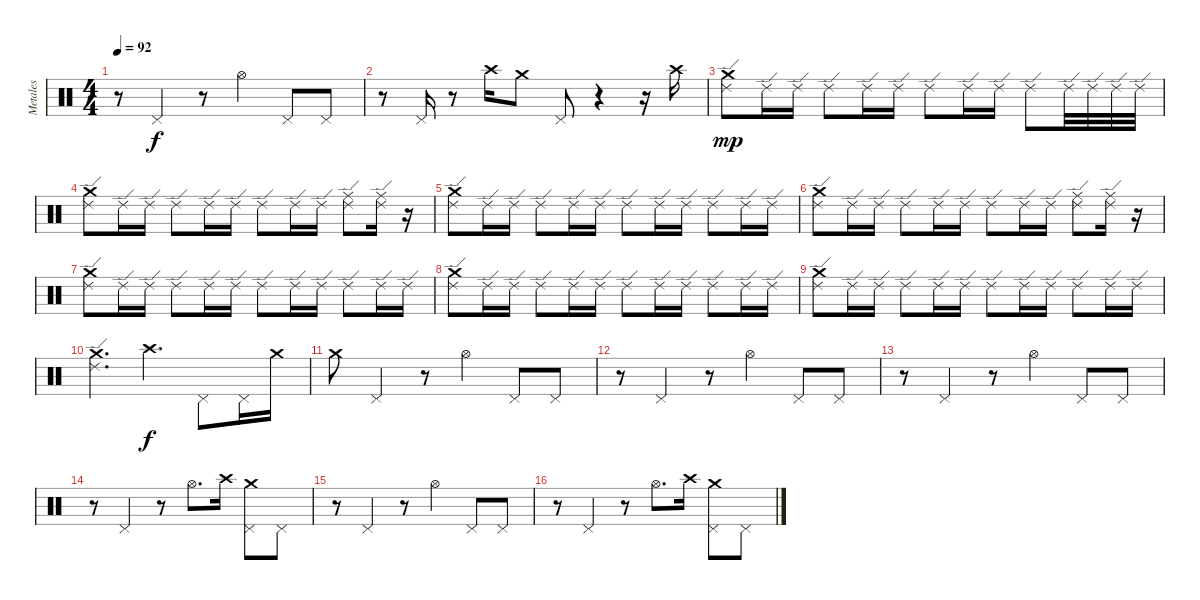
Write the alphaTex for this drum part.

\track ("Metales" "Metales") {instrument percussion}
\staff {score}
\articulation defaults
\ts (4 4)
\tempo 92
\clef neutral
\ks c
r.8{dy f} "Pedal Hi-Hat (hit)".4 r.8 "Hi-Hat (open)".4 "Pedal Hi-Hat (hit)".8 "Pedal Hi-Hat (hit)".8 |
r.8 "Pedal Hi-Hat (hit)".16 r.8 "Crash high (hit)".16 "Crash medium (hit)".8 "Pedal Hi-Hat (hit)".8 r.4 r.16 "Crash high (hit)".16 |
("Ride (edge) 2" "Crash medium (hit)").8{dy mp} "Ride (edge) 2".16 "Ride (edge) 2".16 "Ride (edge) 2".8 "Ride (edge) 2".16 "Ride (edge) 2".16 "Ride (edge) 2".8 "Ride (edge) 2".16 "Ride (edge) 2".16 "Ride (edge) 2".8 "Ride (edge) 2".32 "Ride (edge) 2".32 "Ride (edge) 2".32 "Ride (edge) 2".32 |
("Ride (edge) 2" "Crash medium (hit)").8 "Ride (edge) 2".16 "Ride (edge) 2".16 "Ride (edge) 2".8 "Ride (edge) 2".16 "Ride (edge) 2".16 "Ride (edge) 2".8 "Ride (edge) 2".16 "Ride (edge) 2".16 ("Ride (edge) 2" "Ride (middle)").8 ("Ride (edge) 2" "Ride (middle)").16 r.16 |
("Ride (edge) 2" "Crash medium (hit)").8 "Ride (edge) 2".16 "Ride (edge) 2".16 "Ride (edge) 2".8 "Ride (edge) 2".16 "Ride (edge) 2".16 "Ride (edge) 2".8 "Ride (edge) 2".16 "Ride (edge) 2".16 "Ride (edge) 2".8 "Ride (edge) 2".16 "Ride (edge) 2".16 |
("Ride (edge) 2" "Crash medium (hit)").8 "Ride (edge) 2".16 "Ride (edge) 2".16 "Ride (edge) 2".8 "Ride (edge) 2".16 "Ride (edge) 2".16 "Ride (edge) 2".8 "Ride (edge) 2".16 "Ride (edge) 2".16 ("Ride (edge) 2" "Ride (middle)").8 ("Ride (edge) 2" "Ride (middle)").16 r.16 |
("Ride (edge) 2" "Crash medium (hit)").8 "Ride (edge) 2".16 "Ride (edge) 2".16 "Ride (edge) 2".8 "Ride (edge) 2".16 "Ride (edge) 2".16 "Ride (edge) 2".8 "Ride (edge) 2".16 "Ride (edge) 2".16 "Ride (edge) 2".8 "Ride (edge) 2".16 "Ride (edge) 2".16 |
("Ride (edge) 2" "Crash medium (hit)").8 "Ride (edge) 2".16 "Ride (edge) 2".16 "Ride (edge) 2".8 "Ride (edge) 2".16 "Ride (edge) 2".16 "Ride (edge) 2".8 "Ride (edge) 2".16 "Ride (edge) 2".16 "Ride (edge) 2".8 "Ride (edge) 2".16 "Ride (edge) 2".16 |
("Ride (edge) 2" "Crash medium (hit)").8 "Ride (edge) 2".16 "Ride (edge) 2".16 "Ride (edge) 2".8 "Ride (edge) 2".16 "Ride (edge) 2".16 "Ride (edge) 2".8 "Ride (edge) 2".16 "Ride (edge) 2".16 "Ride (edge) 2".8 "Ride (edge) 2".16 "Ride (edge) 2".16 |
("Ride (edge) 2" "Crash medium (hit)").4{d} "Crash high (hit)".4{d dy f} "Pedal Hi-Hat (hit)".8 "Pedal Hi-Hat (hit)".16 "Crash medium (hit)".16 |
"Crash medium (hit)".8 "Pedal Hi-Hat (hit)".4 r.8 "Hi-Hat (open)".4 "Pedal Hi-Hat (hit)".8 "Pedal Hi-Hat (hit)".8 |
r.8 "Pedal Hi-Hat (hit)".4 r.8 "Hi-Hat (open)".4 "Pedal Hi-Hat (hit)".8 "Pedal Hi-Hat (hit)".8 |
r.8 "Pedal Hi-Hat (hit)".4 r.8 "Hi-Hat (open)".4 "Pedal Hi-Hat (hit)".8 "Pedal Hi-Hat (hit)".8 |
r.8 "Pedal Hi-Hat (hit)".4 r.8 "Hi-Hat (open)".8{d} "Crash high (hit)".16 ("Crash medium (hit)" "Pedal Hi-Hat (hit)").8 "Pedal Hi-Hat (hit)".8 |
r.8 "Pedal Hi-Hat (hit)".4 r.8 "Hi-Hat (open)".4 "Pedal Hi-Hat (hit)".8 "Pedal Hi-Hat (hit)".8 |
r.8 "Pedal Hi-Hat (hit)".4 r.8 "Hi-Hat (open)".8{d} "Crash high (hit)".16 ("Crash medium (hit)" "Pedal Hi-Hat (hit)").8 "Pedal Hi-Hat (hit)".8
